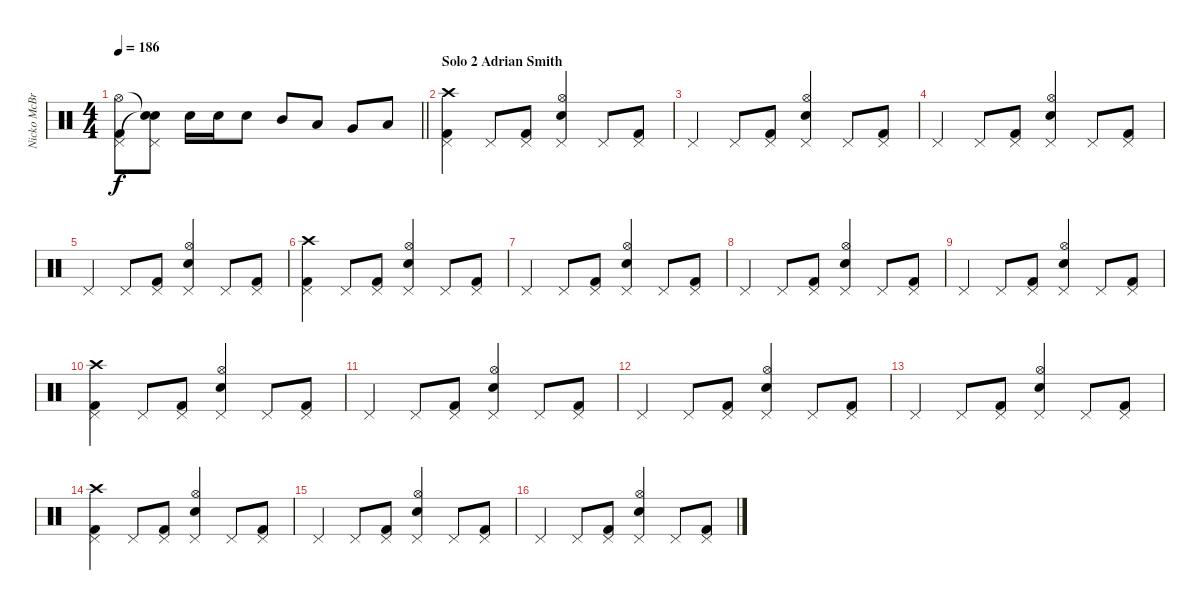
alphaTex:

\track ("Nicko McBrain" "Nicko McBr") {instrument percussion}
\staff {score}
\articulation defaults
\ts (4 4)
\tempo 186
\clef neutral
\barLineRight lightlight
\ks c
("Kick (hit) 2" "Pedal Hi-Hat (hit)" "Hi-Hat (open)").8{dy f} ("Pedal Hi-Hat (hit)" "Snare (hit)"{t} "Snare (hit)"{t}).8 "Snare (hit) 2".16 "Snare (hit) 2".16 "Snare (hit) 2".8 "Mid Tom (hit)".8 "Low Tom (hit)".8 "Very Low Tom (hit)".8 "Low Floor Tom (hit)".8 |
\section ("" "Solo 2 Adrian Smith")
("Kick (hit) 2" "Pedal Hi-Hat (hit)" "Crash high (hit)").4 "Pedal Hi-Hat (hit)".8 ("Kick (hit) 2" "Pedal Hi-Hat (hit)").8 ("Snare (hit) 2" "Pedal Hi-Hat (hit)" "Hi-Hat (open)").4 "Pedal Hi-Hat (hit)".8 ("Kick (hit) 2" "Pedal Hi-Hat (hit)").8 |
"Pedal Hi-Hat (hit)".4 "Pedal Hi-Hat (hit)".8 ("Kick (hit) 2" "Pedal Hi-Hat (hit)").8 ("Snare (hit) 2" "Pedal Hi-Hat (hit)" "Hi-Hat (open)").4 "Pedal Hi-Hat (hit)".8 ("Kick (hit) 2" "Pedal Hi-Hat (hit)").8 |
"Pedal Hi-Hat (hit)".4 "Pedal Hi-Hat (hit)".8 ("Kick (hit) 2" "Pedal Hi-Hat (hit)").8 ("Snare (hit) 2" "Pedal Hi-Hat (hit)" "Hi-Hat (open)").4 "Pedal Hi-Hat (hit)".8 ("Kick (hit) 2" "Pedal Hi-Hat (hit)").8 |
"Pedal Hi-Hat (hit)".4 "Pedal Hi-Hat (hit)".8 ("Kick (hit) 2" "Pedal Hi-Hat (hit)").8 ("Snare (hit) 2" "Pedal Hi-Hat (hit)" "Hi-Hat (open)").4 "Pedal Hi-Hat (hit)".8 ("Kick (hit) 2" "Pedal Hi-Hat (hit)").8 |
("Kick (hit) 2" "Pedal Hi-Hat (hit)" "Crash high (hit)").4 "Pedal Hi-Hat (hit)".8 ("Kick (hit) 2" "Pedal Hi-Hat (hit)").8 ("Snare (hit) 2" "Pedal Hi-Hat (hit)" "Hi-Hat (open)").4 "Pedal Hi-Hat (hit)".8 ("Kick (hit) 2" "Pedal Hi-Hat (hit)").8 |
"Pedal Hi-Hat (hit)".4 "Pedal Hi-Hat (hit)".8 ("Kick (hit) 2" "Pedal Hi-Hat (hit)").8 ("Snare (hit) 2" "Pedal Hi-Hat (hit)" "Hi-Hat (open)").4 "Pedal Hi-Hat (hit)".8 ("Kick (hit) 2" "Pedal Hi-Hat (hit)").8 |
"Pedal Hi-Hat (hit)".4 "Pedal Hi-Hat (hit)".8 ("Kick (hit) 2" "Pedal Hi-Hat (hit)").8 ("Snare (hit) 2" "Pedal Hi-Hat (hit)" "Hi-Hat (open)").4 "Pedal Hi-Hat (hit)".8 ("Kick (hit) 2" "Pedal Hi-Hat (hit)").8 |
"Pedal Hi-Hat (hit)".4 "Pedal Hi-Hat (hit)".8 ("Kick (hit) 2" "Pedal Hi-Hat (hit)").8 ("Snare (hit) 2" "Pedal Hi-Hat (hit)" "Hi-Hat (open)").4 "Pedal Hi-Hat (hit)".8 ("Kick (hit) 2" "Pedal Hi-Hat (hit)").8 |
("Kick (hit) 2" "Pedal Hi-Hat (hit)" "Crash high (hit)").4 "Pedal Hi-Hat (hit)".8 ("Kick (hit) 2" "Pedal Hi-Hat (hit)").8 ("Snare (hit) 2" "Pedal Hi-Hat (hit)" "Hi-Hat (open)").4 "Pedal Hi-Hat (hit)".8 ("Kick (hit) 2" "Pedal Hi-Hat (hit)").8 |
"Pedal Hi-Hat (hit)".4 "Pedal Hi-Hat (hit)".8 ("Kick (hit) 2" "Pedal Hi-Hat (hit)").8 ("Snare (hit) 2" "Pedal Hi-Hat (hit)" "Hi-Hat (open)").4 "Pedal Hi-Hat (hit)".8 ("Kick (hit) 2" "Pedal Hi-Hat (hit)").8 |
"Pedal Hi-Hat (hit)".4 "Pedal Hi-Hat (hit)".8 ("Kick (hit) 2" "Pedal Hi-Hat (hit)").8 ("Snare (hit) 2" "Pedal Hi-Hat (hit)" "Hi-Hat (open)").4 "Pedal Hi-Hat (hit)".8 ("Kick (hit) 2" "Pedal Hi-Hat (hit)").8 |
"Pedal Hi-Hat (hit)".4 "Pedal Hi-Hat (hit)".8 ("Kick (hit) 2" "Pedal Hi-Hat (hit)").8 ("Snare (hit) 2" "Pedal Hi-Hat (hit)" "Hi-Hat (open)").4 "Pedal Hi-Hat (hit)".8 ("Kick (hit) 2" "Pedal Hi-Hat (hit)").8 |
("Kick (hit) 2" "Pedal Hi-Hat (hit)" "Crash high (hit)").4 "Pedal Hi-Hat (hit)".8 ("Kick (hit) 2" "Pedal Hi-Hat (hit)").8 ("Snare (hit) 2" "Pedal Hi-Hat (hit)" "Hi-Hat (open)").4 "Pedal Hi-Hat (hit)".8 ("Kick (hit) 2" "Pedal Hi-Hat (hit)").8 |
"Pedal Hi-Hat (hit)".4 "Pedal Hi-Hat (hit)".8 ("Kick (hit) 2" "Pedal Hi-Hat (hit)").8 ("Snare (hit) 2" "Pedal Hi-Hat (hit)" "Hi-Hat (open)").4 "Pedal Hi-Hat (hit)".8 ("Kick (hit) 2" "Pedal Hi-Hat (hit)").8 |
"Pedal Hi-Hat (hit)".4 "Pedal Hi-Hat (hit)".8 ("Kick (hit) 2" "Pedal Hi-Hat (hit)").8 ("Snare (hit) 2" "Pedal Hi-Hat (hit)" "Hi-Hat (open)").4 "Pedal Hi-Hat (hit)".8 ("Kick (hit) 2" "Pedal Hi-Hat (hit)").8
